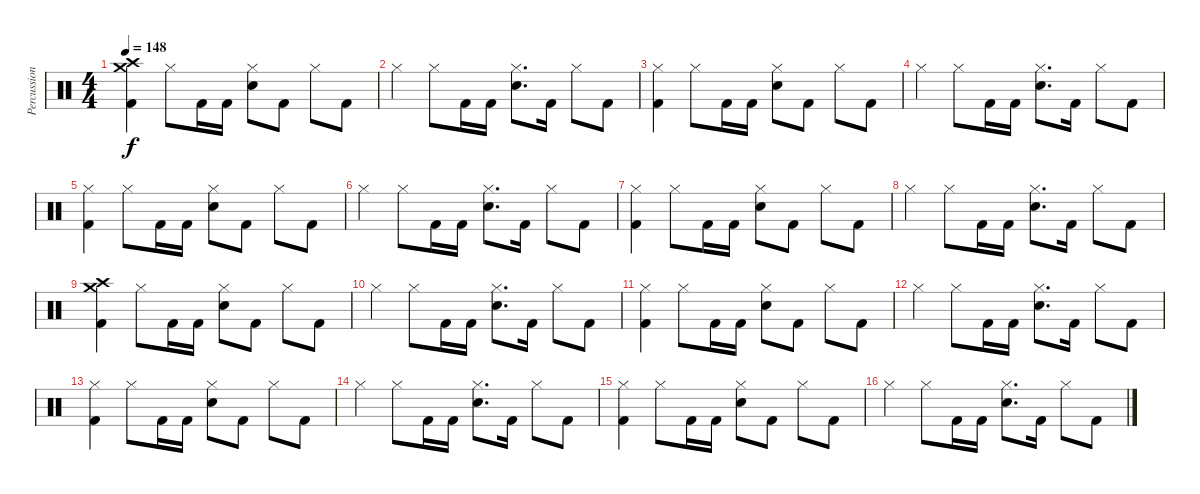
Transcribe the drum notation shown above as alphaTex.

\track ("Percussion" "Percussion") {instrument percussion}
\staff {score}
\articulation defaults
\ts (4 4)
\tempo 148
\clef neutral
\ks c
("Crash high (hit)" "Crash medium (hit)" "Kick (hit) 2").4{dy f} "Hi-Hat (closed)".8 "Kick (hit) 2".16 "Kick (hit) 2".16 ("Hi-Hat (closed)" "Electric Snare (hit)").8 "Kick (hit) 2".8 "Hi-Hat (closed)".8 "Kick (hit) 2".8 |
"Hi-Hat (closed)".4 "Hi-Hat (closed)".8 "Kick (hit) 2".16 "Kick (hit) 2".16 ("Hi-Hat (closed)" "Electric Snare (hit)").8{d} "Kick (hit) 2".16 "Hi-Hat (closed)".8 "Kick (hit) 2".8 |
("Hi-Hat (closed)" "Kick (hit) 2").4 "Hi-Hat (closed)".8 "Kick (hit) 2".16 "Kick (hit) 2".16 ("Hi-Hat (closed)" "Electric Snare (hit)").8 "Kick (hit) 2".8 "Hi-Hat (closed)".8 "Kick (hit) 2".8 |
"Hi-Hat (closed)".4 "Hi-Hat (closed)".8 "Kick (hit) 2".16 "Kick (hit) 2".16 ("Hi-Hat (closed)" "Electric Snare (hit)").8{d} "Kick (hit) 2".16 "Hi-Hat (closed)".8 "Kick (hit) 2".8 |
("Hi-Hat (closed)" "Kick (hit) 2").4 "Hi-Hat (closed)".8 "Kick (hit) 2".16 "Kick (hit) 2".16 ("Hi-Hat (closed)" "Electric Snare (hit)").8 "Kick (hit) 2".8 "Hi-Hat (closed)".8 "Kick (hit) 2".8 |
"Hi-Hat (closed)".4 "Hi-Hat (closed)".8 "Kick (hit) 2".16 "Kick (hit) 2".16 ("Hi-Hat (closed)" "Electric Snare (hit)").8{d} "Kick (hit) 2".16 "Hi-Hat (closed)".8 "Kick (hit) 2".8 |
("Hi-Hat (closed)" "Kick (hit) 2").4 "Hi-Hat (closed)".8 "Kick (hit) 2".16 "Kick (hit) 2".16 ("Hi-Hat (closed)" "Electric Snare (hit)").8 "Kick (hit) 2".8 "Hi-Hat (closed)".8 "Kick (hit) 2".8 |
"Hi-Hat (closed)".4 "Hi-Hat (closed)".8 "Kick (hit) 2".16 "Kick (hit) 2".16 ("Hi-Hat (closed)" "Electric Snare (hit)").8{d} "Kick (hit) 2".16 "Hi-Hat (closed)".8 "Kick (hit) 2".8 |
("Crash high (hit)" "Crash medium (hit)" "Kick (hit) 2").4 "Hi-Hat (closed)".8 "Kick (hit) 2".16 "Kick (hit) 2".16 ("Hi-Hat (closed)" "Electric Snare (hit)").8 "Kick (hit) 2".8 "Hi-Hat (closed)".8 "Kick (hit) 2".8 |
"Hi-Hat (closed)".4 "Hi-Hat (closed)".8 "Kick (hit) 2".16 "Kick (hit) 2".16 ("Hi-Hat (closed)" "Electric Snare (hit)").8{d} "Kick (hit) 2".16 "Hi-Hat (closed)".8 "Kick (hit) 2".8 |
("Hi-Hat (closed)" "Kick (hit) 2").4 "Hi-Hat (closed)".8 "Kick (hit) 2".16 "Kick (hit) 2".16 ("Hi-Hat (closed)" "Electric Snare (hit)").8 "Kick (hit) 2".8 "Hi-Hat (closed)".8 "Kick (hit) 2".8 |
"Hi-Hat (closed)".4 "Hi-Hat (closed)".8 "Kick (hit) 2".16 "Kick (hit) 2".16 ("Hi-Hat (closed)" "Electric Snare (hit)").8{d} "Kick (hit) 2".16 "Hi-Hat (closed)".8 "Kick (hit) 2".8 |
("Hi-Hat (closed)" "Kick (hit) 2").4 "Hi-Hat (closed)".8 "Kick (hit) 2".16 "Kick (hit) 2".16 ("Hi-Hat (closed)" "Electric Snare (hit)").8 "Kick (hit) 2".8 "Hi-Hat (closed)".8 "Kick (hit) 2".8 |
"Hi-Hat (closed)".4 "Hi-Hat (closed)".8 "Kick (hit) 2".16 "Kick (hit) 2".16 ("Hi-Hat (closed)" "Electric Snare (hit)").8{d} "Kick (hit) 2".16 "Hi-Hat (closed)".8 "Kick (hit) 2".8 |
("Hi-Hat (closed)" "Kick (hit) 2").4 "Hi-Hat (closed)".8 "Kick (hit) 2".16 "Kick (hit) 2".16 ("Hi-Hat (closed)" "Electric Snare (hit)").8 "Kick (hit) 2".8 "Hi-Hat (closed)".8 "Kick (hit) 2".8 |
"Hi-Hat (closed)".4 "Hi-Hat (closed)".8 "Kick (hit) 2".16 "Kick (hit) 2".16 ("Hi-Hat (closed)" "Electric Snare (hit)").8{d} "Kick (hit) 2".16 "Hi-Hat (closed)".8 "Kick (hit) 2".8
